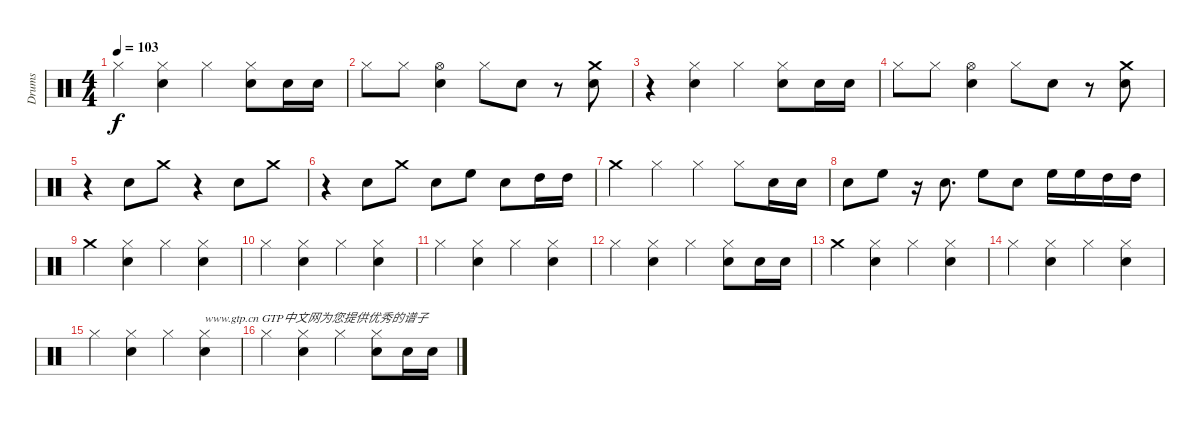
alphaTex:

\track ("Drums" "Drums") {instrument percussion}
\staff {score}
\articulation defaults
\ts (4 4)
\tempo 103
\clef neutral
\ks c "Hi-Hat (closed)".4{dy f}
("Hi-Hat (closed)" "Electric Snare (hit)").4 "Hi-Hat (closed)".4 ("Hi-Hat (closed)" "Electric Snare (hit)").8 "Electric Snare (hit)".16 "Electric Snare (hit)".16 |
"Hi-Hat (closed)".8 "Hi-Hat (closed)".8 ("Hi-Hat (open)" "Electric Snare (hit)").4 "Hi-Hat (closed)".8 "Electric Snare (hit)".8 r.8 ("Electric Snare (hit)" "Crash medium (hit)").8 |
r.4 ("Hi-Hat (closed)" "Electric Snare (hit)").4 "Hi-Hat (closed)".4 ("Hi-Hat (closed)" "Electric Snare (hit)").8 "Electric Snare (hit)".16 "Electric Snare (hit)".16 |
"Hi-Hat (closed)".8 "Hi-Hat (closed)".8 ("Hi-Hat (open)" "Electric Snare (hit)").4 "Hi-Hat (closed)".8 "Electric Snare (hit)".8 r.8 ("Electric Snare (hit)" "Crash medium (hit)").8 |
r.4 "Electric Snare (hit)".8 "Crash medium (hit)".8 r.4 "Electric Snare (hit)".8 "Crash medium (hit)".8 |
r.4 "Electric Snare (hit)".8 "Crash medium (hit)".8 "Electric Snare (hit)".8 "High Floor Tom (hit)".8 "Electric Snare (hit)".8 "High Tom (hit)".16 "High Tom (hit)".16 |
"Crash medium (hit)".4 "Hi-Hat (closed)".4 "Hi-Hat (closed)".4 "Hi-Hat (closed)".8 "Electric Snare (hit)".16 "Electric Snare (hit)".16 |
"Electric Snare (hit)".8 "High Floor Tom (hit)".8 r.16 "Electric Snare (hit)".8{d} "High Floor Tom (hit)".8 "Electric Snare (hit)".8 "High Floor Tom (hit)".16 "High Floor Tom (hit)".16 "High Tom (hit)".16 "High Tom (hit)".16 |
"Crash medium (hit)".4 ("Hi-Hat (closed)" "Electric Snare (hit)").4 "Hi-Hat (closed)".4 ("Hi-Hat (closed)" "Electric Snare (hit)").4 |
"Hi-Hat (closed)".4 ("Hi-Hat (closed)" "Electric Snare (hit)").4 "Hi-Hat (closed)".4 ("Hi-Hat (closed)" "Electric Snare (hit)").4 |
"Hi-Hat (closed)".4 ("Hi-Hat (closed)" "Electric Snare (hit)").4 "Hi-Hat (closed)".4 ("Hi-Hat (closed)" "Electric Snare (hit)").4 |
"Hi-Hat (closed)".4 ("Hi-Hat (closed)" "Electric Snare (hit)").4 "Hi-Hat (closed)".4 ("Hi-Hat (closed)" "Electric Snare (hit)").8 "Electric Snare (hit)".16 "Electric Snare (hit)".16 |
"Crash medium (hit)".4 ("Hi-Hat (closed)" "Electric Snare (hit)").4 "Hi-Hat (closed)".4 ("Hi-Hat (closed)" "Electric Snare (hit)").4 |
"Hi-Hat (closed)".4 ("Hi-Hat (closed)" "Electric Snare (hit)").4 "Hi-Hat (closed)".4 ("Hi-Hat (closed)" "Electric Snare (hit)").4 |
"Hi-Hat (closed)".4 ("Hi-Hat (closed)" "Electric Snare (hit)").4 "Hi-Hat (closed)".4 ("Hi-Hat (closed)" "Electric Snare (hit)").4{txt "www.gtp.cn GTP中文网为您提供优秀的谱子"} |
"Hi-Hat (closed)".4 ("Hi-Hat (closed)" "Electric Snare (hit)").4 "Hi-Hat (closed)".4 ("Hi-Hat (closed)" "Electric Snare (hit)").8 "Electric Snare (hit)".16 "Electric Snare (hit)".16
